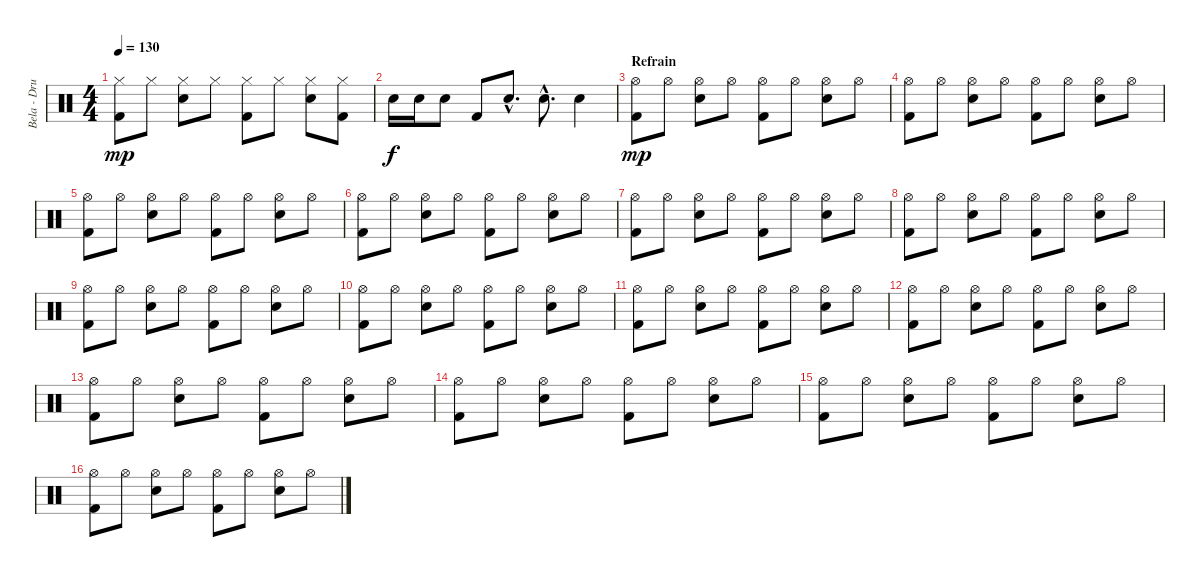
\track ("Bela - Drums" "Bela - Dru") {instrument percussion}
\staff {score}
\articulation defaults
\ts (4 4)
\tempo 130
\clef neutral
\ks c
("Hi-Hat (closed)" "Kick (hit) 2").8{dy mp} "Hi-Hat (closed)".8 ("Hi-Hat (closed)" "Snare (hit) 2").8 "Hi-Hat (closed)".8 ("Hi-Hat (closed)" "Kick (hit) 2").8 "Hi-Hat (closed)".8 ("Hi-Hat (closed)" "Snare (hit) 2").8 ("Hi-Hat (closed)" "Kick (hit) 2").8 |
"Snare (hit) 2".16{dy f} "Snare (hit) 2".16 "Snare (hit) 2".8 "Kick (hit) 2".8 "Snare (hit) 2"{hac}.8{d} "Snare (hit) 2"{hac}.8{d} "Snare (hit) 2".4 |
\section ("" "Refrain")
("Hi-Hat (open)" "Kick (hit) 2").8{dy mp} "Hi-Hat (open)".8 ("Hi-Hat (open)" "Snare (hit) 2").8 "Hi-Hat (open)".8 ("Hi-Hat (open)" "Kick (hit) 2").8 "Hi-Hat (open)".8 ("Hi-Hat (open)" "Snare (hit) 2").8 "Hi-Hat (open)".8 |
("Hi-Hat (open)" "Kick (hit) 2").8 "Hi-Hat (open)".8 ("Hi-Hat (open)" "Snare (hit) 2").8 "Hi-Hat (open)".8 ("Hi-Hat (open)" "Kick (hit) 2").8 "Hi-Hat (open)".8 ("Hi-Hat (open)" "Snare (hit) 2").8 "Hi-Hat (open)".8 |
("Hi-Hat (open)" "Kick (hit) 2").8 "Hi-Hat (open)".8 ("Hi-Hat (open)" "Snare (hit) 2").8 "Hi-Hat (open)".8 ("Hi-Hat (open)" "Kick (hit) 2").8 "Hi-Hat (open)".8 ("Hi-Hat (open)" "Snare (hit) 2").8 "Hi-Hat (open)".8 |
("Hi-Hat (open)" "Kick (hit) 2").8 "Hi-Hat (open)".8 ("Hi-Hat (open)" "Snare (hit) 2").8 "Hi-Hat (open)".8 ("Hi-Hat (open)" "Kick (hit) 2").8 "Hi-Hat (open)".8 ("Hi-Hat (open)" "Snare (hit) 2").8 "Hi-Hat (open)".8 |
("Hi-Hat (open)" "Kick (hit) 2").8 "Hi-Hat (open)".8 ("Hi-Hat (open)" "Snare (hit) 2").8 "Hi-Hat (open)".8 ("Hi-Hat (open)" "Kick (hit) 2").8 "Hi-Hat (open)".8 ("Hi-Hat (open)" "Snare (hit) 2").8 "Hi-Hat (open)".8 |
("Hi-Hat (open)" "Kick (hit) 2").8 "Hi-Hat (open)".8 ("Hi-Hat (open)" "Snare (hit) 2").8 "Hi-Hat (open)".8 ("Hi-Hat (open)" "Kick (hit) 2").8 "Hi-Hat (open)".8 ("Hi-Hat (open)" "Snare (hit) 2").8 "Hi-Hat (open)".8 |
("Hi-Hat (open)" "Kick (hit) 2").8 "Hi-Hat (open)".8 ("Hi-Hat (open)" "Snare (hit) 2").8 "Hi-Hat (open)".8 ("Hi-Hat (open)" "Kick (hit) 2").8 "Hi-Hat (open)".8 ("Hi-Hat (open)" "Snare (hit) 2").8 "Hi-Hat (open)".8 |
("Hi-Hat (open)" "Kick (hit) 2").8 "Hi-Hat (open)".8 ("Hi-Hat (open)" "Snare (hit) 2").8 "Hi-Hat (open)".8 ("Hi-Hat (open)" "Kick (hit) 2").8 "Hi-Hat (open)".8 ("Hi-Hat (open)" "Snare (hit) 2").8 "Hi-Hat (open)".8 |
("Hi-Hat (open)" "Kick (hit) 2").8 "Hi-Hat (open)".8 ("Hi-Hat (open)" "Snare (hit) 2").8 "Hi-Hat (open)".8 ("Hi-Hat (open)" "Kick (hit) 2").8 "Hi-Hat (open)".8 ("Hi-Hat (open)" "Snare (hit) 2").8 "Hi-Hat (open)".8 |
("Hi-Hat (open)" "Kick (hit) 2").8 "Hi-Hat (open)".8 ("Hi-Hat (open)" "Snare (hit) 2").8 "Hi-Hat (open)".8 ("Hi-Hat (open)" "Kick (hit) 2").8 "Hi-Hat (open)".8 ("Hi-Hat (open)" "Snare (hit) 2").8 "Hi-Hat (open)".8 |
("Hi-Hat (open)" "Kick (hit) 2").8 "Hi-Hat (open)".8 ("Hi-Hat (open)" "Snare (hit) 2").8 "Hi-Hat (open)".8 ("Hi-Hat (open)" "Kick (hit) 2").8 "Hi-Hat (open)".8 ("Hi-Hat (open)" "Snare (hit) 2").8 "Hi-Hat (open)".8 |
("Hi-Hat (open)" "Kick (hit) 2").8 "Hi-Hat (open)".8 ("Hi-Hat (open)" "Snare (hit) 2").8 "Hi-Hat (open)".8 ("Hi-Hat (open)" "Kick (hit) 2").8 "Hi-Hat (open)".8 ("Hi-Hat (open)" "Snare (hit) 2").8 "Hi-Hat (open)".8 |
("Hi-Hat (open)" "Kick (hit) 2").8 "Hi-Hat (open)".8 ("Hi-Hat (open)" "Snare (hit) 2").8 "Hi-Hat (open)".8 ("Hi-Hat (open)" "Kick (hit) 2").8 "Hi-Hat (open)".8 ("Hi-Hat (open)" "Snare (hit) 2").8 "Hi-Hat (open)".8 |
("Hi-Hat (open)" "Kick (hit) 2").8 "Hi-Hat (open)".8 ("Hi-Hat (open)" "Snare (hit) 2").8 "Hi-Hat (open)".8 ("Hi-Hat (open)" "Kick (hit) 2").8 "Hi-Hat (open)".8 ("Hi-Hat (open)" "Snare (hit) 2").8 "Hi-Hat (open)".8
